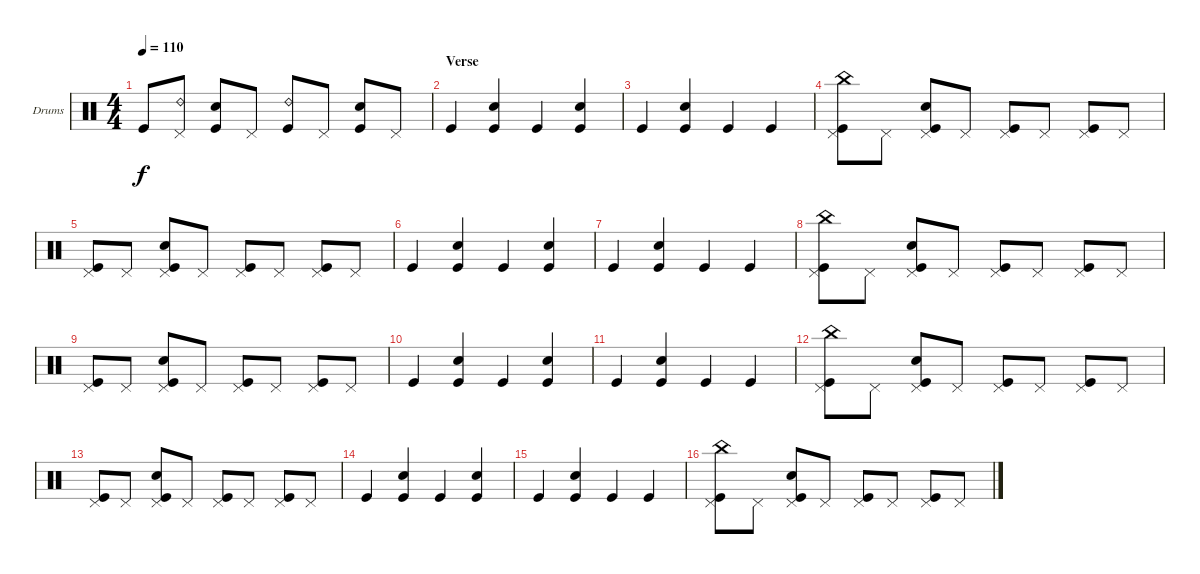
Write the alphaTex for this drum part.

\bracketExtendMode groupsimilarinstruments
\firstSystemTrackNameOrientation horizontal
\otherSystemsTrackNameOrientation horizontal
\track ("Drumkit" "Drums") {instrument percussion}
\staff {score}
\articulation defaults
\ts (4 4)
\tempo 110
\clef neutral
\ks c "Kick (hit)".8{dy f}
("Pedal Hi-Hat (hit)" "Ride (bell) 2").8 ("Snare (hit) 2" "Kick (hit)").8 "Pedal Hi-Hat (hit)".8 ("Kick (hit)" "Ride (bell) 2").8 "Pedal Hi-Hat (hit)".8 ("Snare (hit) 2" "Kick (hit)").8 "Pedal Hi-Hat (hit)".8 |
\section ("" "Verse")
"Kick (hit)".4 ("Snare (hit) 2" "Kick (hit)").4 "Kick (hit)".4 ("Snare (hit) 2" "Kick (hit)").4 |
"Kick (hit)".4 ("Snare (hit) 2" "Kick (hit)").4 "Kick (hit)".4 "Kick (hit)".4 |
("Kick (hit)" "Pedal Hi-Hat (hit)" "China (hit)").8 "Pedal Hi-Hat (hit)".8 ("Snare (hit) 2" "Kick (hit)" "Pedal Hi-Hat (hit)").8 "Pedal Hi-Hat (hit)".8 ("Kick (hit)" "Pedal Hi-Hat (hit)").8 "Pedal Hi-Hat (hit)".8 ("Kick (hit)" "Pedal Hi-Hat (hit)").8 "Pedal Hi-Hat (hit)".8 |
("Kick (hit)" "Pedal Hi-Hat (hit)").8 "Pedal Hi-Hat (hit)".8 ("Snare (hit) 2" "Kick (hit)" "Pedal Hi-Hat (hit)").8 "Pedal Hi-Hat (hit)".8 ("Kick (hit)" "Pedal Hi-Hat (hit)").8 "Pedal Hi-Hat (hit)".8 ("Kick (hit)" "Pedal Hi-Hat (hit)").8 "Pedal Hi-Hat (hit)".8 |
"Kick (hit)".4 ("Snare (hit) 2" "Kick (hit)").4 "Kick (hit)".4 ("Snare (hit) 2" "Kick (hit)").4 |
"Kick (hit)".4 ("Snare (hit) 2" "Kick (hit)").4 "Kick (hit)".4 "Kick (hit)".4 |
("Kick (hit)" "Pedal Hi-Hat (hit)" "China (hit)").8 "Pedal Hi-Hat (hit)".8 ("Snare (hit) 2" "Kick (hit)" "Pedal Hi-Hat (hit)").8 "Pedal Hi-Hat (hit)".8 ("Kick (hit)" "Pedal Hi-Hat (hit)").8 "Pedal Hi-Hat (hit)".8 ("Kick (hit)" "Pedal Hi-Hat (hit)").8 "Pedal Hi-Hat (hit)".8 |
("Kick (hit)" "Pedal Hi-Hat (hit)").8 "Pedal Hi-Hat (hit)".8 ("Snare (hit) 2" "Kick (hit)" "Pedal Hi-Hat (hit)").8 "Pedal Hi-Hat (hit)".8 ("Kick (hit)" "Pedal Hi-Hat (hit)").8 "Pedal Hi-Hat (hit)".8 ("Kick (hit)" "Pedal Hi-Hat (hit)").8 "Pedal Hi-Hat (hit)".8 |
"Kick (hit)".4 ("Snare (hit) 2" "Kick (hit)").4 "Kick (hit)".4 ("Snare (hit) 2" "Kick (hit)").4 |
"Kick (hit)".4 ("Snare (hit) 2" "Kick (hit)").4 "Kick (hit)".4 "Kick (hit)".4 |
("Kick (hit)" "Pedal Hi-Hat (hit)" "China (hit)").8 "Pedal Hi-Hat (hit)".8 ("Snare (hit) 2" "Kick (hit)" "Pedal Hi-Hat (hit)").8 "Pedal Hi-Hat (hit)".8 ("Kick (hit)" "Pedal Hi-Hat (hit)").8 "Pedal Hi-Hat (hit)".8 ("Kick (hit)" "Pedal Hi-Hat (hit)").8 "Pedal Hi-Hat (hit)".8 |
("Kick (hit)" "Pedal Hi-Hat (hit)").8 "Pedal Hi-Hat (hit)".8 ("Snare (hit) 2" "Kick (hit)" "Pedal Hi-Hat (hit)").8 "Pedal Hi-Hat (hit)".8 ("Kick (hit)" "Pedal Hi-Hat (hit)").8 "Pedal Hi-Hat (hit)".8 ("Kick (hit)" "Pedal Hi-Hat (hit)").8 "Pedal Hi-Hat (hit)".8 |
"Kick (hit)".4 ("Snare (hit) 2" "Kick (hit)").4 "Kick (hit)".4 ("Snare (hit) 2" "Kick (hit)").4 |
"Kick (hit)".4 ("Snare (hit) 2" "Kick (hit)").4 "Kick (hit)".4 "Kick (hit)".4 |
("Kick (hit)" "Pedal Hi-Hat (hit)" "China (hit)").8 "Pedal Hi-Hat (hit)".8 ("Snare (hit) 2" "Kick (hit)" "Pedal Hi-Hat (hit)").8 "Pedal Hi-Hat (hit)".8 ("Kick (hit)" "Pedal Hi-Hat (hit)").8 "Pedal Hi-Hat (hit)".8 ("Kick (hit)" "Pedal Hi-Hat (hit)").8 "Pedal Hi-Hat (hit)".8
